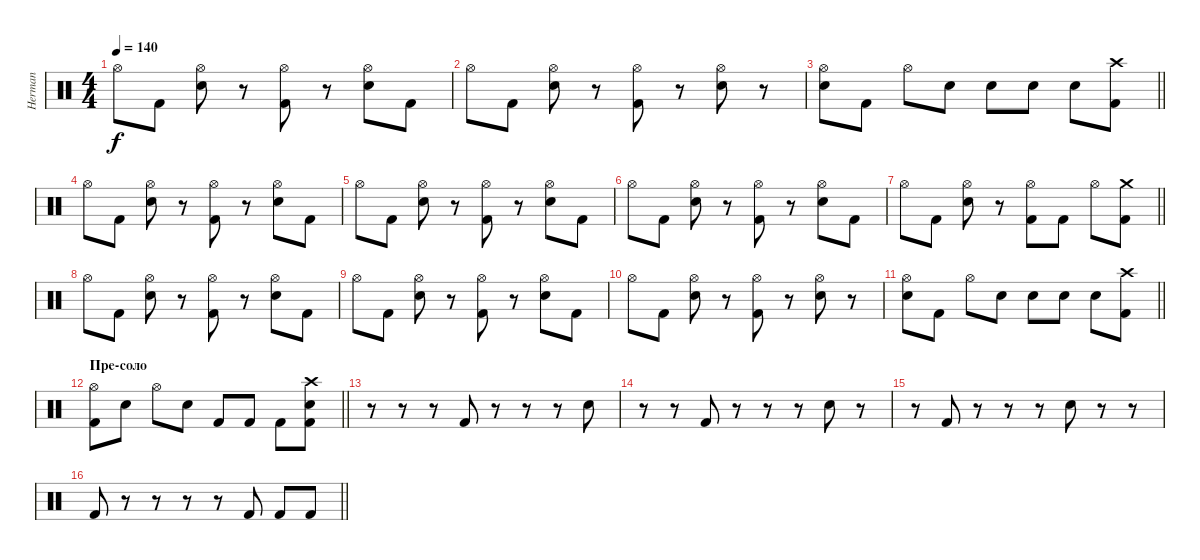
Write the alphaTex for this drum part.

\track ("Herman" "Herman") {instrument percussion}
\staff {score}
\articulation defaults
\ts (4 4)
\tempo 140
\clef neutral
\ks c "Hi-Hat (open)".8{dy f} "Kick (hit) 2".8
("Hi-Hat (open)" "Electric Snare (hit)").8 r.8 ("Hi-Hat (open)" "Kick (hit) 2").8 r.8 ("Hi-Hat (open)" "Electric Snare (hit)").8 "Kick (hit) 2".8 |
"Hi-Hat (open)".8 "Kick (hit) 2".8 ("Hi-Hat (open)" "Electric Snare (hit)").8 r.8 ("Hi-Hat (open)" "Kick (hit) 2").8 r.8 ("Hi-Hat (open)" "Electric Snare (hit)").8 r.8 |
\barLineRight lightlight
("Hi-Hat (open)" "Electric Snare (hit)").8 "Kick (hit) 2".8 "Hi-Hat (open)".8 "Electric Snare (hit)".8 "Electric Snare (hit)".8 "Electric Snare (hit)".8 "Electric Snare (hit)".8 ("Crash high (hit)" "Kick (hit) 2").8 |
"Hi-Hat (open)".8 "Kick (hit) 2".8 ("Hi-Hat (open)" "Electric Snare (hit)").8 r.8 ("Hi-Hat (open)" "Kick (hit) 2").8 r.8 ("Hi-Hat (open)" "Electric Snare (hit)").8 "Kick (hit) 2".8 |
"Hi-Hat (open)".8 "Kick (hit) 2".8 ("Hi-Hat (open)" "Electric Snare (hit)").8 r.8 ("Hi-Hat (open)" "Kick (hit) 2").8 r.8 ("Hi-Hat (open)" "Electric Snare (hit)").8 "Kick (hit) 2".8 |
"Hi-Hat (open)".8 "Kick (hit) 2".8 ("Hi-Hat (open)" "Electric Snare (hit)").8 r.8 ("Hi-Hat (open)" "Kick (hit) 2").8 r.8 ("Hi-Hat (open)" "Electric Snare (hit)").8 "Kick (hit) 2".8 |
\barLineRight lightlight "Hi-Hat (open)".8 "Kick (hit) 2".8
("Hi-Hat (open)" "Electric Snare (hit)").8 r.8 ("Hi-Hat (open)" "Kick (hit) 2").8 "Kick (hit) 2".8 "Hi-Hat (open)".8 ("Crash medium (hit)" "Kick (hit) 2").8 |
"Hi-Hat (open)".8 "Kick (hit) 2".8 ("Hi-Hat (open)" "Electric Snare (hit)").8 r.8 ("Hi-Hat (open)" "Kick (hit) 2").8 r.8 ("Hi-Hat (open)" "Electric Snare (hit)").8 "Kick (hit) 2".8 |
"Hi-Hat (open)".8 "Kick (hit) 2".8 ("Hi-Hat (open)" "Electric Snare (hit)").8 r.8 ("Hi-Hat (open)" "Kick (hit) 2").8 r.8 ("Hi-Hat (open)" "Electric Snare (hit)").8 "Kick (hit) 2".8 |
"Hi-Hat (open)".8 "Kick (hit) 2".8 ("Hi-Hat (open)" "Electric Snare (hit)").8 r.8 ("Hi-Hat (open)" "Kick (hit) 2").8 r.8 ("Hi-Hat (open)" "Electric Snare (hit)").8 r.8 |
\barLineRight lightlight
("Hi-Hat (open)" "Electric Snare (hit)").8 "Kick (hit) 2".8 "Hi-Hat (open)".8 "Electric Snare (hit)".8 "Electric Snare (hit)".8 "Electric Snare (hit)".8 "Electric Snare (hit)".8 ("Crash high (hit)" "Kick (hit) 2").8 |
\section ("" "Пре-соло")
\barLineRight lightlight
("Hi-Hat (open)" "Kick (hit) 2").8 "Electric Snare (hit)".8 "Hi-Hat (open)".8 "Electric Snare (hit)".8 "Kick (hit) 2".8 "Kick (hit) 2".8 "Kick (hit) 2".8 ("Crash high (hit)" "Electric Snare (hit)" "Kick (hit) 2").8 |
r.8 r.8 r.8 "Kick (hit) 2".8 r.8 r.8 r.8 "Electric Snare (hit)".8 |
r.8 r.8 "Kick (hit) 2".8 r.8 r.8 r.8 "Electric Snare (hit)".8 r.8 |
r.8 "Kick (hit) 2".8 r.8 r.8 r.8 "Electric Snare (hit)".8 r.8 r.8 |
\barLineRight lightlight "Kick (hit) 2".8
r.8 r.8 r.8 r.8 "Kick (hit) 2".8 "Kick (hit) 2".8 "Kick (hit) 2".8
